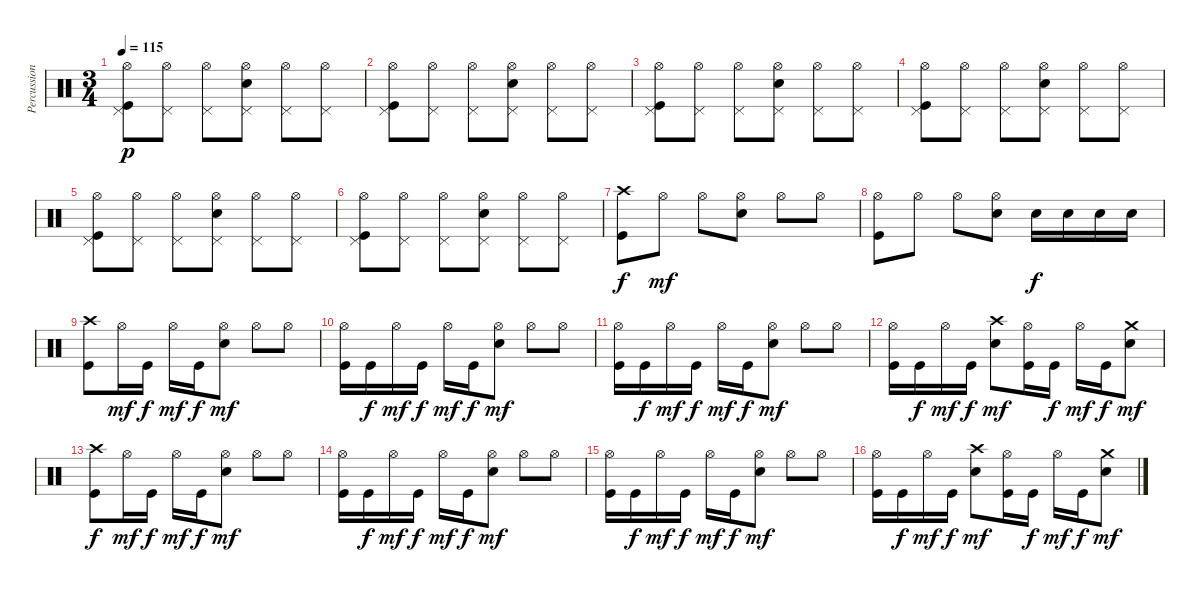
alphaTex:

\track ("Percussions" "Percussion") {instrument percussion}
\staff {score}
\articulation defaults
\ts (3 4)
\tempo 115
\clef neutral
\ks c
("Kick (hit)" "Pedal Hi-Hat (hit)" "Hi-Hat (open)").8{dy p} ("Pedal Hi-Hat (hit)" "Hi-Hat (open)").8 ("Pedal Hi-Hat (hit)" "Hi-Hat (open)").8 ("Electric Snare (hit)" "Pedal Hi-Hat (hit)" "Hi-Hat (open)").8 ("Pedal Hi-Hat (hit)" "Hi-Hat (open)").8 ("Pedal Hi-Hat (hit)" "Hi-Hat (open)").8 |
("Kick (hit)" "Pedal Hi-Hat (hit)" "Hi-Hat (open)").8 ("Pedal Hi-Hat (hit)" "Hi-Hat (open)").8 ("Pedal Hi-Hat (hit)" "Hi-Hat (open)").8 ("Electric Snare (hit)" "Pedal Hi-Hat (hit)" "Hi-Hat (open)").8 ("Pedal Hi-Hat (hit)" "Hi-Hat (open)").8 ("Pedal Hi-Hat (hit)" "Hi-Hat (open)").8 |
("Kick (hit)" "Pedal Hi-Hat (hit)" "Hi-Hat (open)").8 ("Pedal Hi-Hat (hit)" "Hi-Hat (open)").8 ("Pedal Hi-Hat (hit)" "Hi-Hat (open)").8 ("Electric Snare (hit)" "Pedal Hi-Hat (hit)" "Hi-Hat (open)").8 ("Pedal Hi-Hat (hit)" "Hi-Hat (open)").8 ("Pedal Hi-Hat (hit)" "Hi-Hat (open)").8 |
("Kick (hit)" "Pedal Hi-Hat (hit)" "Hi-Hat (open)").8 ("Pedal Hi-Hat (hit)" "Hi-Hat (open)").8 ("Pedal Hi-Hat (hit)" "Hi-Hat (open)").8 ("Electric Snare (hit)" "Pedal Hi-Hat (hit)" "Hi-Hat (open)").8 ("Pedal Hi-Hat (hit)" "Hi-Hat (open)").8 ("Pedal Hi-Hat (hit)" "Hi-Hat (open)").8 |
("Kick (hit)" "Pedal Hi-Hat (hit)" "Hi-Hat (open)").8 ("Pedal Hi-Hat (hit)" "Hi-Hat (open)").8 ("Pedal Hi-Hat (hit)" "Hi-Hat (open)").8 ("Electric Snare (hit)" "Pedal Hi-Hat (hit)" "Hi-Hat (open)").8 ("Pedal Hi-Hat (hit)" "Hi-Hat (open)").8 ("Pedal Hi-Hat (hit)" "Hi-Hat (open)").8 |
("Kick (hit)" "Pedal Hi-Hat (hit)" "Hi-Hat (open)").8 ("Pedal Hi-Hat (hit)" "Hi-Hat (open)").8 ("Pedal Hi-Hat (hit)" "Hi-Hat (open)").8 ("Electric Snare (hit)" "Pedal Hi-Hat (hit)" "Hi-Hat (open)").8 ("Pedal Hi-Hat (hit)" "Hi-Hat (open)").8 ("Pedal Hi-Hat (hit)" "Hi-Hat (open)").8 |
("Kick (hit)" "Crash high (hit)").8{dy f} "Hi-Hat (open)".8{dy mf} "Hi-Hat (open)".8 ("Electric Snare (hit)" "Hi-Hat (open)").8 "Hi-Hat (open)".8 "Hi-Hat (open)".8 |
("Kick (hit)" "Hi-Hat (open)").8 "Hi-Hat (open)".8 "Hi-Hat (open)".8 ("Electric Snare (hit)" "Hi-Hat (open)").8 "Electric Snare (hit)".16{dy f} "Electric Snare (hit)".16 "Electric Snare (hit)".16 "Electric Snare (hit)".16 |
("Kick (hit)" "Crash high (hit)").8 "Hi-Hat (open)".16{dy mf} "Kick (hit)".16{dy f} "Hi-Hat (open)".16{dy mf} "Kick (hit)".16{dy f} ("Electric Snare (hit)" "Hi-Hat (open)").8{dy mf} "Hi-Hat (open)".8 "Hi-Hat (open)".8 |
("Kick (hit)" "Hi-Hat (open)").16 "Kick (hit)".16{dy f} "Hi-Hat (open)".16{dy mf} "Kick (hit)".16{dy f} "Hi-Hat (open)".16{dy mf} "Kick (hit)".16{dy f} ("Electric Snare (hit)" "Hi-Hat (open)").8{dy mf} "Hi-Hat (open)".8 "Hi-Hat (open)".8 |
("Kick (hit)" "Hi-Hat (open)").16 "Kick (hit)".16{dy f} "Hi-Hat (open)".16{dy mf} "Kick (hit)".16{dy f} "Hi-Hat (open)".16{dy mf} "Kick (hit)".16{dy f} ("Electric Snare (hit)" "Hi-Hat (open)").8{dy mf} "Hi-Hat (open)".8 "Hi-Hat (open)".8 |
("Kick (hit)" "Hi-Hat (open)").16 "Kick (hit)".16{dy f} "Hi-Hat (open)".16{dy mf} "Kick (hit)".16{dy f} ("Electric Snare (hit)" "Crash high (hit)").8{dy mf} ("Kick (hit)" "Hi-Hat (open)").16 "Kick (hit)".16{dy f} "Hi-Hat (open)".16{dy mf} "Kick (hit)".16{dy f} ("Electric Snare (hit)" "Crash medium (hit)").8{dy mf} |
("Kick (hit)" "Crash high (hit)").8{dy f} "Hi-Hat (open)".16{dy mf} "Kick (hit)".16{dy f} "Hi-Hat (open)".16{dy mf} "Kick (hit)".16{dy f} ("Electric Snare (hit)" "Hi-Hat (open)").8{dy mf} "Hi-Hat (open)".8 "Hi-Hat (open)".8 |
("Kick (hit)" "Hi-Hat (open)").16 "Kick (hit)".16{dy f} "Hi-Hat (open)".16{dy mf} "Kick (hit)".16{dy f} "Hi-Hat (open)".16{dy mf} "Kick (hit)".16{dy f} ("Electric Snare (hit)" "Hi-Hat (open)").8{dy mf} "Hi-Hat (open)".8 "Hi-Hat (open)".8 |
("Kick (hit)" "Hi-Hat (open)").16 "Kick (hit)".16{dy f} "Hi-Hat (open)".16{dy mf} "Kick (hit)".16{dy f} "Hi-Hat (open)".16{dy mf} "Kick (hit)".16{dy f} ("Electric Snare (hit)" "Hi-Hat (open)").8{dy mf} "Hi-Hat (open)".8 "Hi-Hat (open)".8 |
("Kick (hit)" "Hi-Hat (open)").16 "Kick (hit)".16{dy f} "Hi-Hat (open)".16{dy mf} "Kick (hit)".16{dy f} ("Electric Snare (hit)" "Crash high (hit)").8{dy mf} ("Kick (hit)" "Hi-Hat (open)").16 "Kick (hit)".16{dy f} "Hi-Hat (open)".16{dy mf} "Kick (hit)".16{dy f} ("Electric Snare (hit)" "Crash medium (hit)").8{dy mf}
